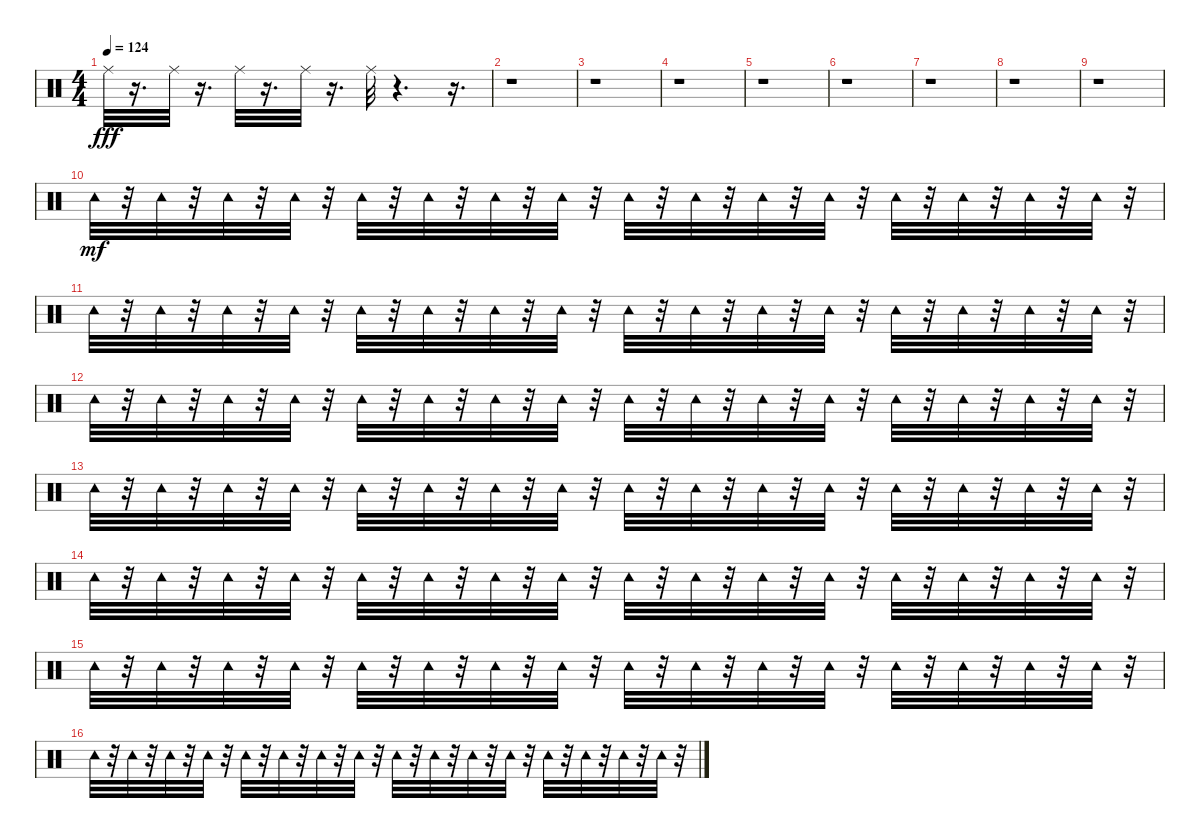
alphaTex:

\track "" {instrument percussion}
\staff {score}
\articulation defaults
\ts (4 4)
\tempo 124
\clef neutral
\ks c "Ride (middle)".32{dy fff}
r.16{d} "Ride (middle)".32 r.16{d} "Ride (middle)".32 r.16{d} "Ride (middle)".32 r.16{d} "Ride (middle)".32 r.4{d} r.16{d} |
r.1 |
r.1 |
r.1 |
r.1 |
r.1 |
r.1 |
r.1 |
r.1 |
"Tambourine (hit)".32{dy mf} r.32 "Tambourine (hit)".32 r.32 "Tambourine (hit)".32 r.32 "Tambourine (hit)".32 r.32 "Tambourine (hit)".32 r.32 "Tambourine (hit)".32 r.32 "Tambourine (hit)".32 r.32 "Tambourine (hit)".32 r.32 "Tambourine (hit)".32 r.32 "Tambourine (hit)".32 r.32 "Tambourine (hit)".32 r.32 "Tambourine (hit)".32 r.32 "Tambourine (hit)".32 r.32 "Tambourine (hit)".32 r.32 "Tambourine (hit)".32 r.32 "Tambourine (hit)".32 r.32 |
"Tambourine (hit)".32 r.32 "Tambourine (hit)".32 r.32 "Tambourine (hit)".32 r.32 "Tambourine (hit)".32 r.32 "Tambourine (hit)".32 r.32 "Tambourine (hit)".32 r.32 "Tambourine (hit)".32 r.32 "Tambourine (hit)".32 r.32 "Tambourine (hit)".32 r.32 "Tambourine (hit)".32 r.32 "Tambourine (hit)".32 r.32 "Tambourine (hit)".32 r.32 "Tambourine (hit)".32 r.32 "Tambourine (hit)".32 r.32 "Tambourine (hit)".32 r.32 "Tambourine (hit)".32 r.32 |
"Tambourine (hit)".32 r.32 "Tambourine (hit)".32 r.32 "Tambourine (hit)".32 r.32 "Tambourine (hit)".32 r.32 "Tambourine (hit)".32 r.32 "Tambourine (hit)".32 r.32 "Tambourine (hit)".32 r.32 "Tambourine (hit)".32 r.32 "Tambourine (hit)".32 r.32 "Tambourine (hit)".32 r.32 "Tambourine (hit)".32 r.32 "Tambourine (hit)".32 r.32 "Tambourine (hit)".32 r.32 "Tambourine (hit)".32 r.32 "Tambourine (hit)".32 r.32 "Tambourine (hit)".32 r.32 |
"Tambourine (hit)".32 r.32 "Tambourine (hit)".32 r.32 "Tambourine (hit)".32 r.32 "Tambourine (hit)".32 r.32 "Tambourine (hit)".32 r.32 "Tambourine (hit)".32 r.32 "Tambourine (hit)".32 r.32 "Tambourine (hit)".32 r.32 "Tambourine (hit)".32 r.32 "Tambourine (hit)".32 r.32 "Tambourine (hit)".32 r.32 "Tambourine (hit)".32 r.32 "Tambourine (hit)".32 r.32 "Tambourine (hit)".32 r.32 "Tambourine (hit)".32 r.32 "Tambourine (hit)".32 r.32 |
"Tambourine (hit)".32 r.32 "Tambourine (hit)".32 r.32 "Tambourine (hit)".32 r.32 "Tambourine (hit)".32 r.32 "Tambourine (hit)".32 r.32 "Tambourine (hit)".32 r.32 "Tambourine (hit)".32 r.32 "Tambourine (hit)".32 r.32 "Tambourine (hit)".32 r.32 "Tambourine (hit)".32 r.32 "Tambourine (hit)".32 r.32 "Tambourine (hit)".32 r.32 "Tambourine (hit)".32 r.32 "Tambourine (hit)".32 r.32 "Tambourine (hit)".32 r.32 "Tambourine (hit)".32 r.32 |
"Tambourine (hit)".32 r.32 "Tambourine (hit)".32 r.32 "Tambourine (hit)".32 r.32 "Tambourine (hit)".32 r.32 "Tambourine (hit)".32 r.32 "Tambourine (hit)".32 r.32 "Tambourine (hit)".32 r.32 "Tambourine (hit)".32 r.32 "Tambourine (hit)".32 r.32 "Tambourine (hit)".32 r.32 "Tambourine (hit)".32 r.32 "Tambourine (hit)".32 r.32 "Tambourine (hit)".32 r.32 "Tambourine (hit)".32 r.32 "Tambourine (hit)".32 r.32 "Tambourine (hit)".32 r.32 |
"Tambourine (hit)".32 r.32 "Tambourine (hit)".32 r.32 "Tambourine (hit)".32 r.32 "Tambourine (hit)".32 r.32 "Tambourine (hit)".32 r.32 "Tambourine (hit)".32 r.32 "Tambourine (hit)".32 r.32 "Tambourine (hit)".32 r.32 "Tambourine (hit)".32 r.32 "Tambourine (hit)".32 r.32 "Tambourine (hit)".32 r.32 "Tambourine (hit)".32 r.32 "Tambourine (hit)".32 r.32 "Tambourine (hit)".32 r.32 "Tambourine (hit)".32 r.32 "Tambourine (hit)".32 r.32
